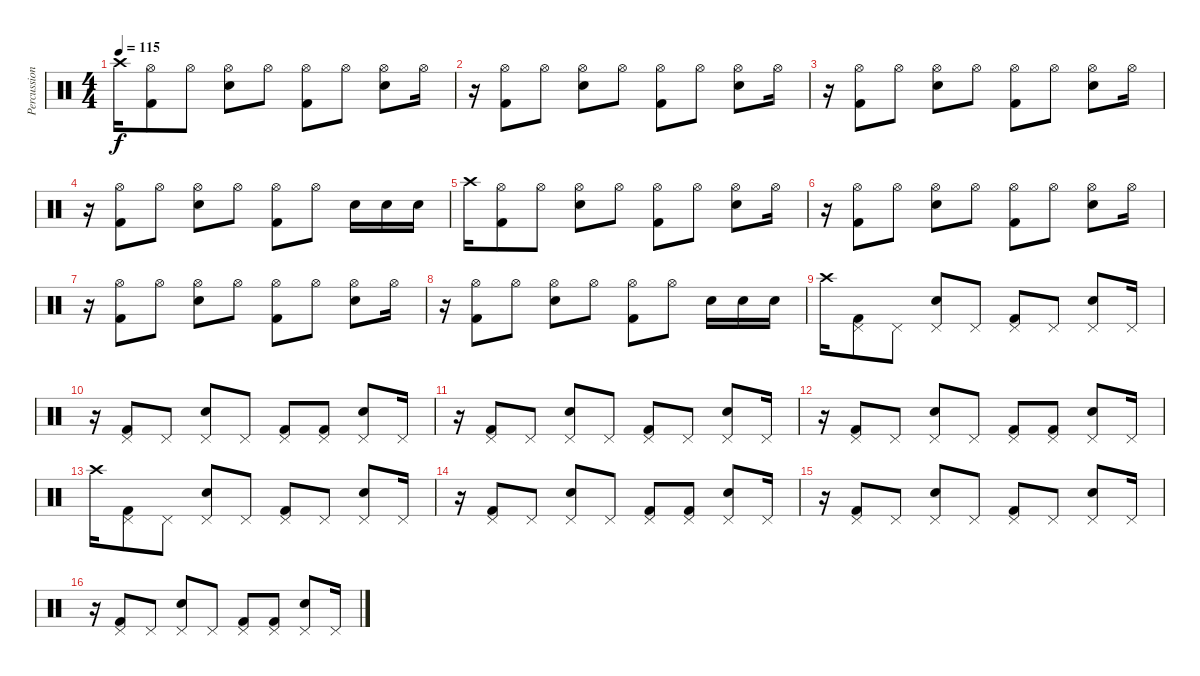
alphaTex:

\track ("Percussion" "Percussion") {instrument percussion}
\staff {score}
\articulation defaults
\ts (4 4)
\tempo 115
\clef neutral
\ks c "Crash high (hit)".16{dy f}
("Hi-Hat (open)" "Kick (hit) 2").8 "Hi-Hat (open)".8 ("Hi-Hat (open)" "Snare (hit) 2").8 "Hi-Hat (open)".8 ("Hi-Hat (open)" "Kick (hit) 2").8 "Hi-Hat (open)".8 ("Hi-Hat (open)" "Snare (hit) 2").8 "Hi-Hat (open)".16 |
r.16 ("Hi-Hat (open)" "Kick (hit) 2").8 "Hi-Hat (open)".8 ("Hi-Hat (open)" "Snare (hit) 2").8 "Hi-Hat (open)".8 ("Hi-Hat (open)" "Kick (hit) 2").8 "Hi-Hat (open)".8 ("Hi-Hat (open)" "Snare (hit) 2").8 "Hi-Hat (open)".16 |
r.16 ("Hi-Hat (open)" "Kick (hit) 2").8 "Hi-Hat (open)".8 ("Hi-Hat (open)" "Snare (hit) 2").8 "Hi-Hat (open)".8 ("Hi-Hat (open)" "Kick (hit) 2").8 "Hi-Hat (open)".8 ("Hi-Hat (open)" "Snare (hit) 2").8 "Hi-Hat (open)".16 |
r.16 ("Hi-Hat (open)" "Kick (hit) 2").8 "Hi-Hat (open)".8 ("Hi-Hat (open)" "Snare (hit) 2").8 "Hi-Hat (open)".8 ("Hi-Hat (open)" "Kick (hit) 2").8 "Hi-Hat (open)".8 "Snare (hit) 2".16 "Snare (hit) 2".16 "Snare (hit) 2".16 |
"Crash high (hit)".16 ("Hi-Hat (open)" "Kick (hit) 2").8 "Hi-Hat (open)".8 ("Hi-Hat (open)" "Snare (hit) 2").8 "Hi-Hat (open)".8 ("Hi-Hat (open)" "Kick (hit) 2").8 "Hi-Hat (open)".8 ("Hi-Hat (open)" "Snare (hit) 2").8 "Hi-Hat (open)".16 |
r.16 ("Hi-Hat (open)" "Kick (hit) 2").8 "Hi-Hat (open)".8 ("Hi-Hat (open)" "Snare (hit) 2").8 "Hi-Hat (open)".8 ("Hi-Hat (open)" "Kick (hit) 2").8 "Hi-Hat (open)".8 ("Hi-Hat (open)" "Snare (hit) 2").8 "Hi-Hat (open)".16 |
r.16 ("Hi-Hat (open)" "Kick (hit) 2").8 "Hi-Hat (open)".8 ("Hi-Hat (open)" "Snare (hit) 2").8 "Hi-Hat (open)".8 ("Hi-Hat (open)" "Kick (hit) 2").8 "Hi-Hat (open)".8 ("Hi-Hat (open)" "Snare (hit) 2").8 "Hi-Hat (open)".16 |
r.16 ("Hi-Hat (open)" "Kick (hit) 2").8 "Hi-Hat (open)".8 ("Hi-Hat (open)" "Snare (hit) 2").8 "Hi-Hat (open)".8 ("Hi-Hat (open)" "Kick (hit) 2").8 "Hi-Hat (open)".8 "Snare (hit) 2".16 "Snare (hit) 2".16 "Snare (hit) 2".16 |
"Crash high (hit)".16 ("Pedal Hi-Hat (hit)" "Kick (hit) 2").8 "Pedal Hi-Hat (hit)".8 ("Pedal Hi-Hat (hit)" "Snare (hit) 2").8 "Pedal Hi-Hat (hit)".8 ("Pedal Hi-Hat (hit)" "Kick (hit) 2").8 "Pedal Hi-Hat (hit)".8 ("Pedal Hi-Hat (hit)" "Snare (hit) 2").8 "Pedal Hi-Hat (hit)".16 |
r.16 ("Pedal Hi-Hat (hit)" "Kick (hit) 2").8 "Pedal Hi-Hat (hit)".8 ("Pedal Hi-Hat (hit)" "Snare (hit) 2").8 "Pedal Hi-Hat (hit)".8 ("Pedal Hi-Hat (hit)" "Kick (hit) 2").8 ("Pedal Hi-Hat (hit)" "Kick (hit) 2").8 ("Pedal Hi-Hat (hit)" "Snare (hit) 2").8 "Pedal Hi-Hat (hit)".16 |
r.16 ("Pedal Hi-Hat (hit)" "Kick (hit) 2").8 "Pedal Hi-Hat (hit)".8 ("Pedal Hi-Hat (hit)" "Snare (hit) 2").8 "Pedal Hi-Hat (hit)".8 ("Pedal Hi-Hat (hit)" "Kick (hit) 2").8 "Pedal Hi-Hat (hit)".8 ("Pedal Hi-Hat (hit)" "Snare (hit) 2").8 "Pedal Hi-Hat (hit)".16 |
r.16 ("Pedal Hi-Hat (hit)" "Kick (hit) 2").8 "Pedal Hi-Hat (hit)".8 ("Pedal Hi-Hat (hit)" "Snare (hit) 2").8 "Pedal Hi-Hat (hit)".8 ("Pedal Hi-Hat (hit)" "Kick (hit) 2").8 ("Pedal Hi-Hat (hit)" "Kick (hit) 2").8 ("Pedal Hi-Hat (hit)" "Snare (hit) 2").8 "Pedal Hi-Hat (hit)".16 |
"Crash high (hit)".16 ("Pedal Hi-Hat (hit)" "Kick (hit) 2").8 "Pedal Hi-Hat (hit)".8 ("Pedal Hi-Hat (hit)" "Snare (hit) 2").8 "Pedal Hi-Hat (hit)".8 ("Pedal Hi-Hat (hit)" "Kick (hit) 2").8 "Pedal Hi-Hat (hit)".8 ("Pedal Hi-Hat (hit)" "Snare (hit) 2").8 "Pedal Hi-Hat (hit)".16 |
r.16 ("Pedal Hi-Hat (hit)" "Kick (hit) 2").8 "Pedal Hi-Hat (hit)".8 ("Pedal Hi-Hat (hit)" "Snare (hit) 2").8 "Pedal Hi-Hat (hit)".8 ("Pedal Hi-Hat (hit)" "Kick (hit) 2").8 ("Pedal Hi-Hat (hit)" "Kick (hit) 2").8 ("Pedal Hi-Hat (hit)" "Snare (hit) 2").8 "Pedal Hi-Hat (hit)".16 |
r.16 ("Pedal Hi-Hat (hit)" "Kick (hit) 2").8 "Pedal Hi-Hat (hit)".8 ("Pedal Hi-Hat (hit)" "Snare (hit) 2").8 "Pedal Hi-Hat (hit)".8 ("Pedal Hi-Hat (hit)" "Kick (hit) 2").8 "Pedal Hi-Hat (hit)".8 ("Pedal Hi-Hat (hit)" "Snare (hit) 2").8 "Pedal Hi-Hat (hit)".16 |
r.16 ("Pedal Hi-Hat (hit)" "Kick (hit) 2").8 "Pedal Hi-Hat (hit)".8 ("Pedal Hi-Hat (hit)" "Snare (hit) 2").8 "Pedal Hi-Hat (hit)".8 ("Pedal Hi-Hat (hit)" "Kick (hit) 2").8 ("Pedal Hi-Hat (hit)" "Kick (hit) 2").8 ("Pedal Hi-Hat (hit)" "Snare (hit) 2").8 "Pedal Hi-Hat (hit)".16
